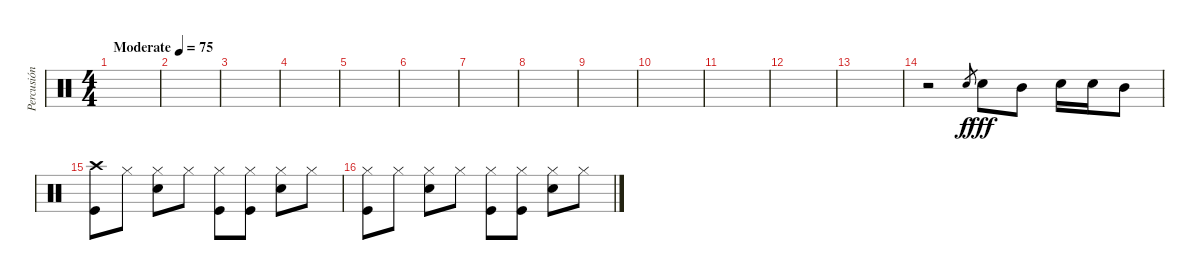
\track ("Percusión" "Percusión") {instrument percussion}
\staff {score}
\articulation defaults
\ts (4 4)
\tempo (75 "Moderate")
\clef neutral
\ks c
|
|
|
|
|
|
|
|
|
|
|
|
|
r.2 "Snare (hit) 2"{h}.8{gr} "Snare (hit) 2".8{dy fff} "Mid Tom (hit)".8 "Snare (hit) 2".16 "Snare (hit) 2".16 "Mid Tom (hit)".8 |
("Crash high (hit)" "Kick (hit)").8 "Hi-Hat (closed)".8 ("Hi-Hat (closed)" "Snare (hit) 2").8 "Hi-Hat (closed)".8 ("Hi-Hat (closed)" "Kick (hit)").8 ("Hi-Hat (closed)" "Kick (hit)").8 ("Hi-Hat (closed)" "Snare (hit) 2").8 "Hi-Hat (closed)".8 |
("Hi-Hat (closed)" "Kick (hit)").8 "Hi-Hat (closed)".8 ("Hi-Hat (closed)" "Snare (hit) 2").8 "Hi-Hat (closed)".8 ("Hi-Hat (closed)" "Kick (hit)").8 ("Hi-Hat (closed)" "Kick (hit)").8 ("Hi-Hat (closed)" "Snare (hit) 2").8 "Hi-Hat (closed)".8
